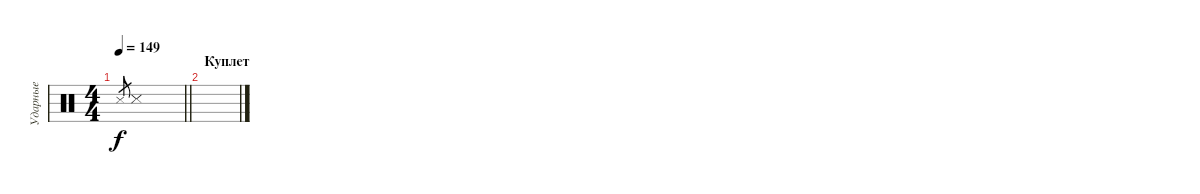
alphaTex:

\track ("Ударные" "Ударные") {instrument percussion}
\staff {score}
\articulation defaults
\ts (4 4)
\tempo 149
\clef neutral
\barLineRight lightlight
\ks c "Snare (side stick) 3".8{gr dy f} "Snare (side stick) 3".1
|
\section ("" "Куплет")
